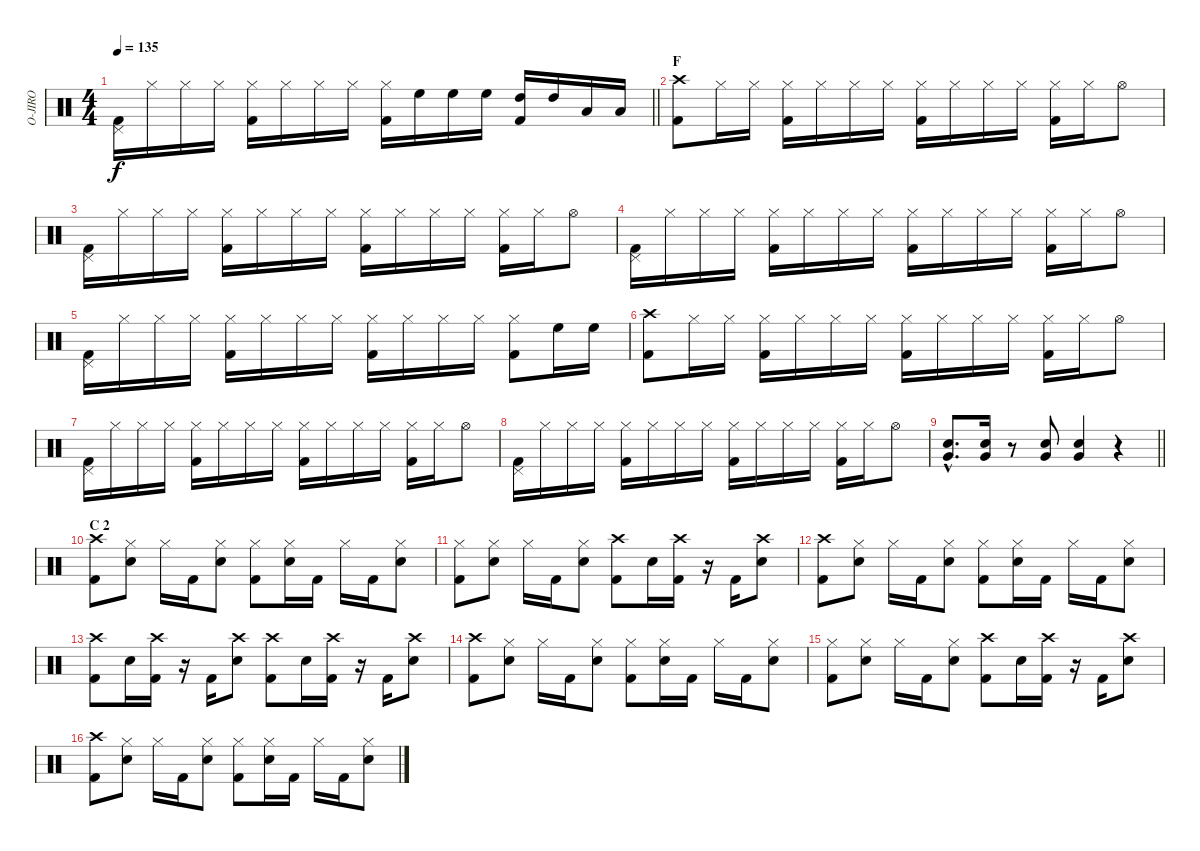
\track ("O-JIRO" "O-JIRO") {instrument percussion}
\staff {score}
\articulation defaults
\ts (4 4)
\tempo 135
\clef neutral
\barLineRight lightlight
\ks c
("Pedal Hi-Hat (hit)" "Kick (hit) 2").16{dy f} "Hi-Hat (closed)".16 "Hi-Hat (closed)".16 "Hi-Hat (closed)".16 ("Hi-Hat (closed)" "Kick (hit) 2").16 "Hi-Hat (closed)".16 "Hi-Hat (closed)".16 "Hi-Hat (closed)".16 ("Hi-Hat (closed)" "Kick (hit) 2").16 "High Floor Tom (hit)".16 "High Floor Tom (hit)".16 "High Floor Tom (hit)".16 ("High Tom (hit)" "Kick (hit) 2").16 "High Tom (hit)".16 "Low Tom (hit)".16 "Low Tom (hit)".16 |
\section ("" "F")
("Crash high (hit)" "Kick (hit) 2").8 "Hi-Hat (closed)".16 "Hi-Hat (closed)".16 ("Hi-Hat (closed)" "Kick (hit) 2").16 "Hi-Hat (closed)".16 "Hi-Hat (closed)".16 "Hi-Hat (closed)".16 ("Hi-Hat (closed)" "Kick (hit) 2").16 "Hi-Hat (closed)".16 "Hi-Hat (closed)".16 "Hi-Hat (closed)".16 ("Hi-Hat (closed)" "Kick (hit) 2").16 "Hi-Hat (closed)".16 "Hi-Hat (open)".8 |
("Pedal Hi-Hat (hit)" "Kick (hit) 2").16 "Hi-Hat (closed)".16 "Hi-Hat (closed)".16 "Hi-Hat (closed)".16 ("Hi-Hat (closed)" "Kick (hit) 2").16 "Hi-Hat (closed)".16 "Hi-Hat (closed)".16 "Hi-Hat (closed)".16 ("Hi-Hat (closed)" "Kick (hit) 2").16 "Hi-Hat (closed)".16 "Hi-Hat (closed)".16 "Hi-Hat (closed)".16 ("Hi-Hat (closed)" "Kick (hit) 2").16 "Hi-Hat (closed)".16 "Hi-Hat (open)".8 |
("Pedal Hi-Hat (hit)" "Kick (hit) 2").16 "Hi-Hat (closed)".16 "Hi-Hat (closed)".16 "Hi-Hat (closed)".16 ("Hi-Hat (closed)" "Kick (hit) 2").16 "Hi-Hat (closed)".16 "Hi-Hat (closed)".16 "Hi-Hat (closed)".16 ("Hi-Hat (closed)" "Kick (hit) 2").16 "Hi-Hat (closed)".16 "Hi-Hat (closed)".16 "Hi-Hat (closed)".16 ("Hi-Hat (closed)" "Kick (hit) 2").16 "Hi-Hat (closed)".16 "Hi-Hat (open)".8 |
("Pedal Hi-Hat (hit)" "Kick (hit) 2").16 "Hi-Hat (closed)".16 "Hi-Hat (closed)".16 "Hi-Hat (closed)".16 ("Hi-Hat (closed)" "Kick (hit) 2").16 "Hi-Hat (closed)".16 "Hi-Hat (closed)".16 "Hi-Hat (closed)".16 ("Hi-Hat (closed)" "Kick (hit) 2").16 "Hi-Hat (closed)".16 "Hi-Hat (closed)".16 "Hi-Hat (closed)".16 ("Hi-Hat (closed)" "Kick (hit) 2").8 "High Floor Tom (hit)".16 "High Floor Tom (hit)".16 |
("Crash high (hit)" "Kick (hit) 2").8 "Hi-Hat (closed)".16 "Hi-Hat (closed)".16 ("Hi-Hat (closed)" "Kick (hit) 2").16 "Hi-Hat (closed)".16 "Hi-Hat (closed)".16 "Hi-Hat (closed)".16 ("Hi-Hat (closed)" "Kick (hit) 2").16 "Hi-Hat (closed)".16 "Hi-Hat (closed)".16 "Hi-Hat (closed)".16 ("Hi-Hat (closed)" "Kick (hit) 2").16 "Hi-Hat (closed)".16 "Hi-Hat (open)".8 |
("Pedal Hi-Hat (hit)" "Kick (hit) 2").16 "Hi-Hat (closed)".16 "Hi-Hat (closed)".16 "Hi-Hat (closed)".16 ("Hi-Hat (closed)" "Kick (hit) 2").16 "Hi-Hat (closed)".16 "Hi-Hat (closed)".16 "Hi-Hat (closed)".16 ("Hi-Hat (closed)" "Kick (hit) 2").16 "Hi-Hat (closed)".16 "Hi-Hat (closed)".16 "Hi-Hat (closed)".16 ("Hi-Hat (closed)" "Kick (hit) 2").16 "Hi-Hat (closed)".16 "Hi-Hat (open)".8 |
("Pedal Hi-Hat (hit)" "Kick (hit) 2").16 "Hi-Hat (closed)".16 "Hi-Hat (closed)".16 "Hi-Hat (closed)".16 ("Hi-Hat (closed)" "Kick (hit) 2").16 "Hi-Hat (closed)".16 "Hi-Hat (closed)".16 "Hi-Hat (closed)".16 ("Hi-Hat (closed)" "Kick (hit) 2").16 "Hi-Hat (closed)".16 "Hi-Hat (closed)".16 "Hi-Hat (closed)".16 ("Hi-Hat (closed)" "Kick (hit) 2").16 "Hi-Hat (closed)".16 "Hi-Hat (open)".8 |
\barLineRight lightlight
("Snare (hit) 2"{hac} "Very Low Tom (hit)"{hac}).8{d} ("Snare (hit) 2" "Very Low Tom (hit)").16 r.8 ("Snare (hit) 2" "Very Low Tom (hit)").8 ("Snare (hit) 2" "Very Low Tom (hit)").4 r.4 |
\section ("" "C 2")
("Crash high (hit)" "Kick (hit) 2").8 ("Hi-Hat (closed)" "Snare (hit) 2").8 "Hi-Hat (closed)".16 "Kick (hit) 2".16 ("Hi-Hat (closed)" "Snare (hit) 2").8 ("Hi-Hat (closed)" "Kick (hit) 2").8 ("Hi-Hat (closed)" "Snare (hit) 2").16 "Kick (hit) 2".16 "Hi-Hat (closed)".16 "Kick (hit) 2".16 ("Hi-Hat (closed)" "Snare (hit) 2").8 |
("Hi-Hat (closed)" "Kick (hit) 2").8 ("Hi-Hat (closed)" "Snare (hit) 2").8 "Hi-Hat (closed)".16 "Kick (hit) 2".16 ("Hi-Hat (closed)" "Snare (hit) 2").8 ("Crash high (hit)" "Kick (hit) 2").8 "Snare (hit) 2".16 ("Crash high (hit)" "Kick (hit) 2").16 r.16 "Kick (hit) 2".16 ("Crash high (hit)" "Snare (hit) 2").8 |
("Crash high (hit)" "Kick (hit) 2").8 ("Hi-Hat (closed)" "Snare (hit) 2").8 "Hi-Hat (closed)".16 "Kick (hit) 2".16 ("Hi-Hat (closed)" "Snare (hit) 2").8 ("Hi-Hat (closed)" "Kick (hit) 2").8 ("Hi-Hat (closed)" "Snare (hit) 2").16 "Kick (hit) 2".16 "Hi-Hat (closed)".16 "Kick (hit) 2".16 ("Hi-Hat (closed)" "Snare (hit) 2").8 |
("Crash high (hit)" "Kick (hit) 2").8 "Snare (hit) 2".16 ("Crash high (hit)" "Kick (hit) 2").16 r.16 "Kick (hit) 2".16 ("Crash high (hit)" "Snare (hit) 2").8 ("Crash high (hit)" "Kick (hit) 2").8 "Snare (hit) 2".16 ("Crash high (hit)" "Kick (hit) 2").16 r.16 "Kick (hit) 2".16 ("Crash high (hit)" "Snare (hit) 2").8 |
("Crash high (hit)" "Kick (hit) 2").8 ("Hi-Hat (closed)" "Snare (hit) 2").8 "Hi-Hat (closed)".16 "Kick (hit) 2".16 ("Hi-Hat (closed)" "Snare (hit) 2").8 ("Hi-Hat (closed)" "Kick (hit) 2").8 ("Hi-Hat (closed)" "Snare (hit) 2").16 "Kick (hit) 2".16 "Hi-Hat (closed)".16 "Kick (hit) 2".16 ("Hi-Hat (closed)" "Snare (hit) 2").8 |
("Hi-Hat (closed)" "Kick (hit) 2").8 ("Hi-Hat (closed)" "Snare (hit) 2").8 "Hi-Hat (closed)".16 "Kick (hit) 2".16 ("Hi-Hat (closed)" "Snare (hit) 2").8 ("Crash high (hit)" "Kick (hit) 2").8 "Snare (hit) 2".16 ("Crash high (hit)" "Kick (hit) 2").16 r.16 "Kick (hit) 2".16 ("Crash high (hit)" "Snare (hit) 2").8 |
("Crash high (hit)" "Kick (hit) 2").8 ("Hi-Hat (closed)" "Snare (hit) 2").8 "Hi-Hat (closed)".16 "Kick (hit) 2".16 ("Hi-Hat (closed)" "Snare (hit) 2").8 ("Hi-Hat (closed)" "Kick (hit) 2").8 ("Hi-Hat (closed)" "Snare (hit) 2").16 "Kick (hit) 2".16 "Hi-Hat (closed)".16 "Kick (hit) 2".16 ("Hi-Hat (closed)" "Snare (hit) 2").8
